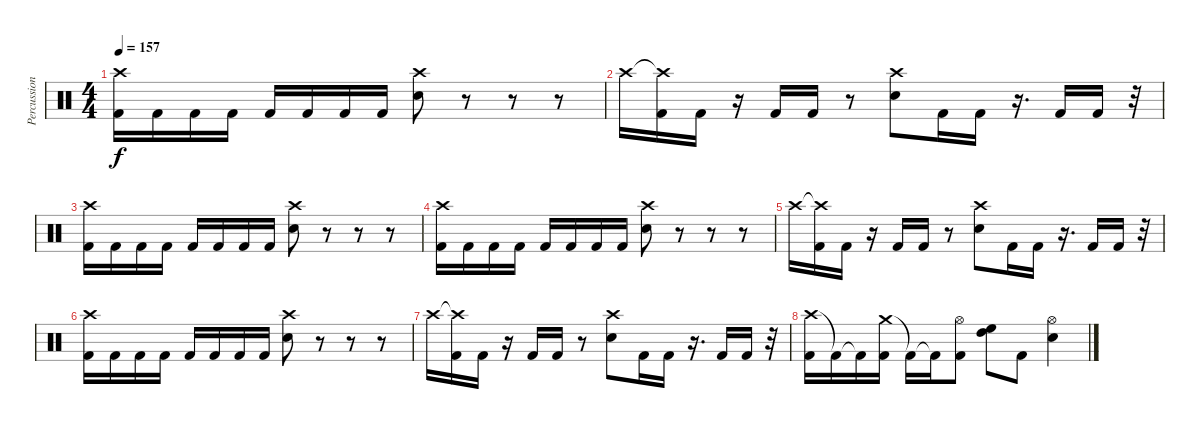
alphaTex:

\track ("Percussion" "Percussion") {instrument percussion}
\staff {score}
\articulation defaults
\ts (4 4)
\tempo 157
\clef neutral
\ks c
("Crash high (hit)" "Kick (hit) 2").16{dy f} "Kick (hit) 2".16 "Kick (hit) 2".16 "Kick (hit) 2".16 "Kick (hit) 2".16 "Kick (hit) 2".16 "Kick (hit) 2".16 "Kick (hit) 2".16 ("Crash high (hit)" "Snare (hit) 2").8 r.8 r.8 r.8 |
"Crash high (hit)".16 ("Crash high (hit)"{t} "Kick (hit) 2").16 "Kick (hit) 2".16 r.16 "Kick (hit) 2".16 "Kick (hit) 2".16 r.8 ("Crash high (hit)" "Snare (hit) 2").8 "Kick (hit) 2".16 "Kick (hit) 2".16 r.16{d} "Kick (hit) 2".16 "Kick (hit) 2".16 r.32 |
("Crash high (hit)" "Kick (hit) 2").16 "Kick (hit) 2".16 "Kick (hit) 2".16 "Kick (hit) 2".16 "Kick (hit) 2".16 "Kick (hit) 2".16 "Kick (hit) 2".16 "Kick (hit) 2".16 ("Crash high (hit)" "Snare (hit) 2").8 r.8 r.8 r.8 |
("Crash high (hit)" "Kick (hit) 2").16 "Kick (hit) 2".16 "Kick (hit) 2".16 "Kick (hit) 2".16 "Kick (hit) 2".16 "Kick (hit) 2".16 "Kick (hit) 2".16 "Kick (hit) 2".16 ("Crash high (hit)" "Snare (hit) 2").8 r.8 r.8 r.8 |
"Crash high (hit)".16 ("Crash high (hit)"{t} "Kick (hit) 2").16 "Kick (hit) 2".16 r.16 "Kick (hit) 2".16 "Kick (hit) 2".16 r.8 ("Crash high (hit)" "Snare (hit) 2").8 "Kick (hit) 2".16 "Kick (hit) 2".16 r.16{d} "Kick (hit) 2".16 "Kick (hit) 2".16 r.32 |
("Crash high (hit)" "Kick (hit) 2").16 "Kick (hit) 2".16 "Kick (hit) 2".16 "Kick (hit) 2".16 "Kick (hit) 2".16 "Kick (hit) 2".16 "Kick (hit) 2".16 "Kick (hit) 2".16 ("Crash high (hit)" "Snare (hit) 2").8 r.8 r.8 r.8 |
"Crash high (hit)".16 ("Crash high (hit)"{t} "Kick (hit) 2").16 "Kick (hit) 2".16 r.16 "Kick (hit) 2".16 "Kick (hit) 2".16 r.8 ("Crash high (hit)" "Snare (hit) 2").8 "Kick (hit) 2".16 "Kick (hit) 2".16 r.16{d} "Kick (hit) 2".16 "Kick (hit) 2".16 r.32 |
("Crash high (hit)" "Kick (hit) 2").16 "Kick (hit) 2"{t}.16 "Kick (hit) 2"{t}.16 ("Crash medium (hit)" "Kick (hit) 2").16 "Kick (hit) 2"{t}.16 "Kick (hit) 2"{t}.16 ("Hi-Hat (open)" "Kick (hit) 2").8 ("High Tom (hit)" "High Floor Tom (hit)").8 "Kick (hit) 2".8 ("Hi-Hat (open)" "Snare (hit) 2").4
